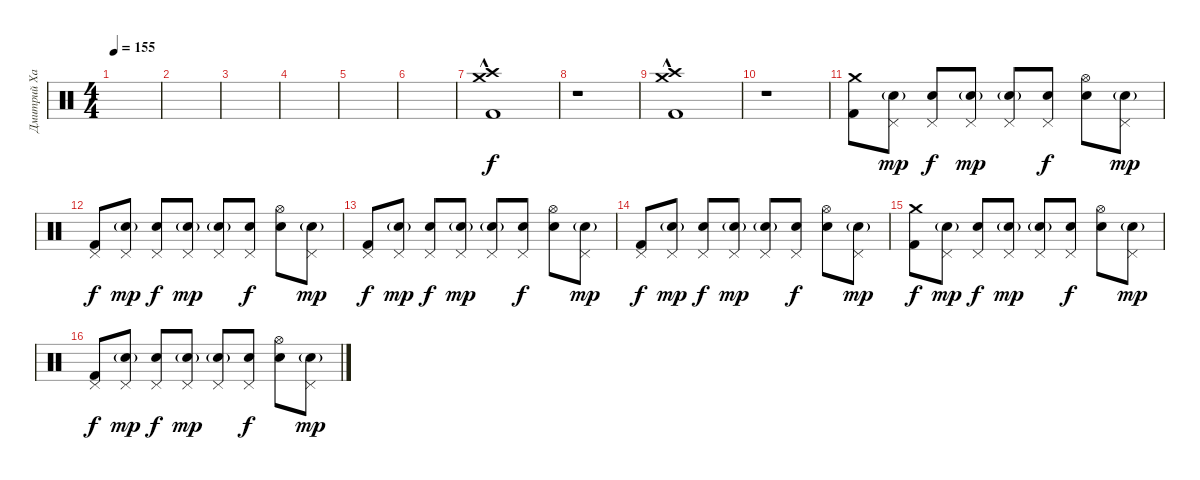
\track ("Дмитрий Хакимов" "Дмитрий Ха") {instrument percussion}
\staff {score}
\articulation defaults
\ts (4 4)
\tempo 155
\clef neutral
\ks c
|
|
|
|
|
|
("Crash high (hit)"{hac} "Crash medium (hit)"{hac} "Kick (hit) 2").1 |
r.1 |
("Crash high (hit)"{hac} "Crash medium (hit)"{hac} "Kick (hit) 2").1 |
r.1 |
("Crash medium (hit)" "Kick (hit) 2").8{dy f} ("Pedal Hi-Hat (hit)" "Electric Snare (hit)"{g}).8{dy mp} ("Pedal Hi-Hat (hit)" "Electric Snare (hit)").8{dy f} ("Pedal Hi-Hat (hit)" "Electric Snare (hit)"{g}).8{dy mp} ("Pedal Hi-Hat (hit)" "Electric Snare (hit)"{g}).8 ("Pedal Hi-Hat (hit)" "Electric Snare (hit)").8{dy f} ("Hi-Hat (open)" "Electric Snare (hit)").8 ("Pedal Hi-Hat (hit)" "Electric Snare (hit)"{g}).8{dy mp} |
("Pedal Hi-Hat (hit)" "Kick (hit) 2").8{dy f} ("Pedal Hi-Hat (hit)" "Electric Snare (hit)"{g}).8{dy mp} ("Pedal Hi-Hat (hit)" "Electric Snare (hit)").8{dy f} ("Pedal Hi-Hat (hit)" "Electric Snare (hit)"{g}).8{dy mp} ("Pedal Hi-Hat (hit)" "Electric Snare (hit)"{g}).8 ("Pedal Hi-Hat (hit)" "Electric Snare (hit)").8{dy f} ("Hi-Hat (open)" "Electric Snare (hit)").8 ("Pedal Hi-Hat (hit)" "Electric Snare (hit)"{g}).8{dy mp} |
("Pedal Hi-Hat (hit)" "Kick (hit) 2").8{dy f} ("Pedal Hi-Hat (hit)" "Electric Snare (hit)"{g}).8{dy mp} ("Pedal Hi-Hat (hit)" "Electric Snare (hit)").8{dy f} ("Pedal Hi-Hat (hit)" "Electric Snare (hit)"{g}).8{dy mp} ("Pedal Hi-Hat (hit)" "Electric Snare (hit)"{g}).8 ("Pedal Hi-Hat (hit)" "Electric Snare (hit)").8{dy f} ("Hi-Hat (open)" "Electric Snare (hit)").8 ("Pedal Hi-Hat (hit)" "Electric Snare (hit)"{g}).8{dy mp} |
("Pedal Hi-Hat (hit)" "Kick (hit) 2").8{dy f} ("Pedal Hi-Hat (hit)" "Electric Snare (hit)"{g}).8{dy mp} ("Pedal Hi-Hat (hit)" "Electric Snare (hit)").8{dy f} ("Pedal Hi-Hat (hit)" "Electric Snare (hit)"{g}).8{dy mp} ("Pedal Hi-Hat (hit)" "Electric Snare (hit)"{g}).8 ("Pedal Hi-Hat (hit)" "Electric Snare (hit)").8{dy f} ("Hi-Hat (open)" "Electric Snare (hit)").8 ("Pedal Hi-Hat (hit)" "Electric Snare (hit)"{g}).8{dy mp} |
("Crash medium (hit)" "Kick (hit) 2").8{dy f} ("Pedal Hi-Hat (hit)" "Electric Snare (hit)"{g}).8{dy mp} ("Pedal Hi-Hat (hit)" "Electric Snare (hit)").8{dy f} ("Pedal Hi-Hat (hit)" "Electric Snare (hit)"{g}).8{dy mp} ("Pedal Hi-Hat (hit)" "Electric Snare (hit)"{g}).8 ("Pedal Hi-Hat (hit)" "Electric Snare (hit)").8{dy f} ("Hi-Hat (open)" "Electric Snare (hit)").8 ("Pedal Hi-Hat (hit)" "Electric Snare (hit)"{g}).8{dy mp} |
("Pedal Hi-Hat (hit)" "Kick (hit) 2").8{dy f} ("Pedal Hi-Hat (hit)" "Electric Snare (hit)"{g}).8{dy mp} ("Pedal Hi-Hat (hit)" "Electric Snare (hit)").8{dy f} ("Pedal Hi-Hat (hit)" "Electric Snare (hit)"{g}).8{dy mp} ("Pedal Hi-Hat (hit)" "Electric Snare (hit)"{g}).8 ("Pedal Hi-Hat (hit)" "Electric Snare (hit)").8{dy f} ("Hi-Hat (open)" "Electric Snare (hit)").8 ("Pedal Hi-Hat (hit)" "Electric Snare (hit)"{g}).8{dy mp}
